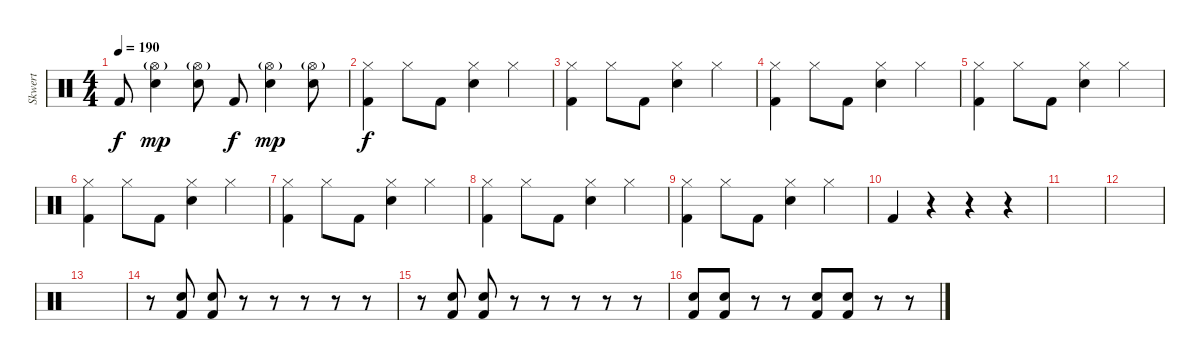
\track ("Skwert" "Skwert") {instrument percussion}
\staff {score}
\articulation defaults
\ts (4 4)
\tempo 190
\clef neutral
\ks c "Kick (hit) 2".8{dy f}
("Hi-Hat (open)"{g} "Electric Snare (hit)").4{dy mp} ("Hi-Hat (open)"{g} "Electric Snare (hit)").8 "Kick (hit) 2".8{dy f} ("Hi-Hat (open)"{g} "Electric Snare (hit)").4{dy mp} ("Hi-Hat (open)"{g} "Electric Snare (hit)").8 |
("Hi-Hat (closed)" "Kick (hit) 2").4{dy f} "Hi-Hat (closed)".8 "Kick (hit) 2".8 ("Hi-Hat (closed)" "Electric Snare (hit)").4 "Hi-Hat (closed)".4 |
("Hi-Hat (closed)" "Kick (hit) 2").4 "Hi-Hat (closed)".8 "Kick (hit) 2".8 ("Hi-Hat (closed)" "Electric Snare (hit)").4 "Hi-Hat (closed)".4 |
("Hi-Hat (closed)" "Kick (hit) 2").4 "Hi-Hat (closed)".8 "Kick (hit) 2".8 ("Hi-Hat (closed)" "Electric Snare (hit)").4 "Hi-Hat (closed)".4 |
("Hi-Hat (closed)" "Kick (hit) 2").4 "Hi-Hat (closed)".8 "Kick (hit) 2".8 ("Hi-Hat (closed)" "Electric Snare (hit)").4 "Hi-Hat (closed)".4 |
("Hi-Hat (closed)" "Kick (hit) 2").4 "Hi-Hat (closed)".8 "Kick (hit) 2".8 ("Hi-Hat (closed)" "Electric Snare (hit)").4 "Hi-Hat (closed)".4 |
("Hi-Hat (closed)" "Kick (hit) 2").4 "Hi-Hat (closed)".8 "Kick (hit) 2".8 ("Hi-Hat (closed)" "Electric Snare (hit)").4 "Hi-Hat (closed)".4 |
("Hi-Hat (closed)" "Kick (hit) 2").4 "Hi-Hat (closed)".8 "Kick (hit) 2".8 ("Hi-Hat (closed)" "Electric Snare (hit)").4 "Hi-Hat (closed)".4 |
("Hi-Hat (closed)" "Kick (hit) 2").4 "Hi-Hat (closed)".8 "Kick (hit) 2".8 ("Hi-Hat (closed)" "Electric Snare (hit)").4 "Hi-Hat (closed)".4 |
"Kick (hit) 2".4 r.4 r.4 r.4 |
|
|
|
r.8 ("Electric Snare (hit)" "Kick (hit) 2").8 ("Electric Snare (hit)" "Kick (hit) 2").8 r.8 r.8 r.8 r.8 r.8 |
r.8 ("Electric Snare (hit)" "Kick (hit) 2").8 ("Electric Snare (hit)" "Kick (hit) 2").8 r.8 r.8 r.8 r.8 r.8 |
("Electric Snare (hit)" "Kick (hit) 2").8 ("Electric Snare (hit)" "Kick (hit) 2").8 r.8 r.8 ("Electric Snare (hit)" "Kick (hit) 2").8 ("Electric Snare (hit)" "Kick (hit) 2").8 r.8 r.8
